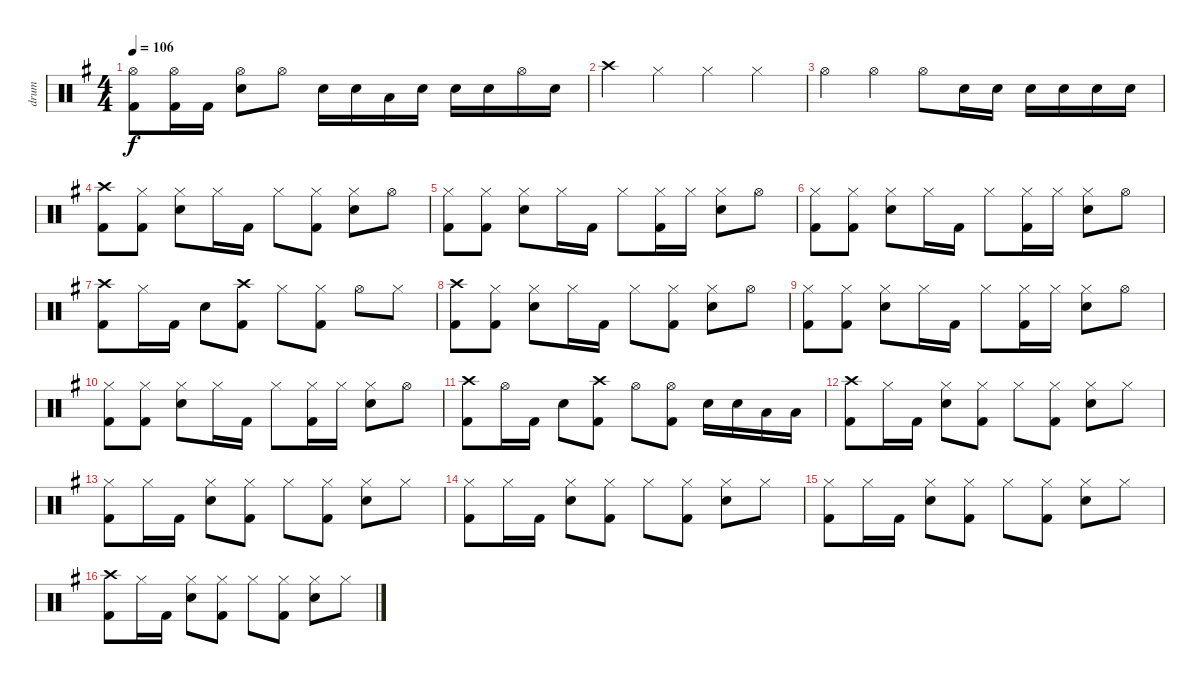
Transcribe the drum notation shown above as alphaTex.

\track ("drum" "drum") {instrument percussion}
\staff {score}
\articulation defaults
\ts (4 4)
\tempo 106
\clef neutral
\ks eminor
("Hi-Hat (open)" "Kick (hit) 2").8{dy f} ("Hi-Hat (open)" "Kick (hit) 2").16 "Kick (hit) 2".16 ("Hi-Hat (open)" "Electric Snare (hit)").8 "Hi-Hat (open)".8 "Electric Snare (hit)".16 "Electric Snare (hit)".16 "Low Tom (hit)".16 "Electric Snare (hit)".16 "Electric Snare (hit)".16 "Electric Snare (hit)".16 "Hi-Hat (open)".16 "Electric Snare (hit)".16 |
"Crash high (hit)".4 "Hi-Hat (closed)".4 "Hi-Hat (closed)".4 "Hi-Hat (closed)".4 |
"Hi-Hat (open)".4 "Hi-Hat (open)".4 "Hi-Hat (open)".8 "Electric Snare (hit)".16 "Electric Snare (hit)".16 "Electric Snare (hit)".16 "Electric Snare (hit)".16 "Electric Snare (hit)".16 "Electric Snare (hit)".16 |
("Crash high (hit)" "Kick (hit) 2").8 ("Hi-Hat (closed)" "Kick (hit) 2").8 ("Hi-Hat (closed)" "Electric Snare (hit)").8 "Hi-Hat (closed)".16 "Kick (hit) 2".16 "Hi-Hat (closed)".8 ("Hi-Hat (closed)" "Kick (hit) 2").8 ("Hi-Hat (closed)" "Electric Snare (hit)").8 "Hi-Hat (open)".8 |
("Hi-Hat (closed)" "Kick (hit) 2").8 ("Hi-Hat (closed)" "Kick (hit) 2").8 ("Hi-Hat (closed)" "Electric Snare (hit)").8 "Hi-Hat (closed)".16 "Kick (hit) 2".16 "Hi-Hat (closed)".8 ("Hi-Hat (closed)" "Kick (hit) 2").16 "Hi-Hat (closed)".16 ("Hi-Hat (closed)" "Electric Snare (hit)").8 "Hi-Hat (open)".8 |
("Hi-Hat (closed)" "Kick (hit) 2").8 ("Hi-Hat (closed)" "Kick (hit) 2").8 ("Hi-Hat (closed)" "Electric Snare (hit)").8 "Hi-Hat (closed)".16 "Kick (hit) 2".16 "Hi-Hat (closed)".8 ("Hi-Hat (closed)" "Kick (hit) 2").16 "Hi-Hat (closed)".16 ("Hi-Hat (closed)" "Electric Snare (hit)").8 "Hi-Hat (open)".8 |
("Crash high (hit)" "Kick (hit) 2").8 "Hi-Hat (closed)".16 "Kick (hit) 2".16 "Electric Snare (hit)".8 ("Crash high (hit)" "Kick (hit) 2").8 "Hi-Hat (closed)".8 ("Hi-Hat (closed)" "Kick (hit) 2").8 "Hi-Hat (open)".8 "Hi-Hat (closed)".8 |
("Crash high (hit)" "Kick (hit) 2").8 ("Hi-Hat (closed)" "Kick (hit) 2").8 ("Hi-Hat (closed)" "Electric Snare (hit)").8 "Hi-Hat (closed)".16 "Kick (hit) 2".16 "Hi-Hat (closed)".8 ("Hi-Hat (closed)" "Kick (hit) 2").8 ("Hi-Hat (closed)" "Electric Snare (hit)").8 "Hi-Hat (open)".8 |
("Hi-Hat (closed)" "Kick (hit) 2").8 ("Hi-Hat (closed)" "Kick (hit) 2").8 ("Hi-Hat (closed)" "Electric Snare (hit)").8 "Hi-Hat (closed)".16 "Kick (hit) 2".16 "Hi-Hat (closed)".8 ("Hi-Hat (closed)" "Kick (hit) 2").16 "Hi-Hat (closed)".16 ("Hi-Hat (closed)" "Electric Snare (hit)").8 "Hi-Hat (open)".8 |
("Hi-Hat (closed)" "Kick (hit) 2").8 ("Hi-Hat (closed)" "Kick (hit) 2").8 ("Hi-Hat (closed)" "Electric Snare (hit)").8 "Hi-Hat (closed)".16 "Kick (hit) 2".16 "Hi-Hat (closed)".8 ("Hi-Hat (closed)" "Kick (hit) 2").16 "Hi-Hat (closed)".16 ("Hi-Hat (closed)" "Electric Snare (hit)").8 "Hi-Hat (open)".8 |
("Crash high (hit)" "Kick (hit) 2").8 "Hi-Hat (open)".16 "Kick (hit) 2".16 "Electric Snare (hit)".8 ("Crash high (hit)" "Kick (hit) 2").8 "Hi-Hat (open)".8 ("Hi-Hat (open)" "Kick (hit) 2").8 "Electric Snare (hit)".16 "Electric Snare (hit)".16 "Low Tom (hit)".16 "Low Tom (hit)".16 |
("Crash high (hit)" "Kick (hit) 2").8 "Hi-Hat (closed)".16 "Kick (hit) 2".16 ("Hi-Hat (closed)" "Electric Snare (hit)").8 ("Hi-Hat (closed)" "Kick (hit) 2").8 "Hi-Hat (closed)".8 ("Hi-Hat (closed)" "Kick (hit) 2").8 ("Hi-Hat (closed)" "Electric Snare (hit)").8 "Hi-Hat (closed)".8 |
("Hi-Hat (closed)" "Kick (hit) 2").8 "Hi-Hat (closed)".16 "Kick (hit) 2".16 ("Hi-Hat (closed)" "Electric Snare (hit)").8 ("Hi-Hat (closed)" "Kick (hit) 2").8 "Hi-Hat (closed)".8 ("Hi-Hat (closed)" "Kick (hit) 2").8 ("Hi-Hat (closed)" "Electric Snare (hit)").8 "Hi-Hat (closed)".8 |
("Hi-Hat (closed)" "Kick (hit) 2").8 "Hi-Hat (closed)".16 "Kick (hit) 2".16 ("Hi-Hat (closed)" "Electric Snare (hit)").8 ("Hi-Hat (closed)" "Kick (hit) 2").8 "Hi-Hat (closed)".8 ("Hi-Hat (closed)" "Kick (hit) 2").8 ("Hi-Hat (closed)" "Electric Snare (hit)").8 "Hi-Hat (closed)".8 |
("Hi-Hat (closed)" "Kick (hit) 2").8 "Hi-Hat (closed)".16 "Kick (hit) 2".16 ("Hi-Hat (closed)" "Electric Snare (hit)").8 ("Hi-Hat (closed)" "Kick (hit) 2").8 "Hi-Hat (closed)".8 ("Hi-Hat (closed)" "Kick (hit) 2").8 ("Hi-Hat (closed)" "Electric Snare (hit)").8 "Hi-Hat (closed)".8 |
("Crash high (hit)" "Kick (hit) 2").8 "Hi-Hat (closed)".16 "Kick (hit) 2".16 ("Hi-Hat (closed)" "Electric Snare (hit)").8 ("Hi-Hat (closed)" "Kick (hit) 2").8 "Hi-Hat (closed)".8 ("Hi-Hat (closed)" "Kick (hit) 2").8 ("Hi-Hat (closed)" "Electric Snare (hit)").8 "Hi-Hat (closed)".8
